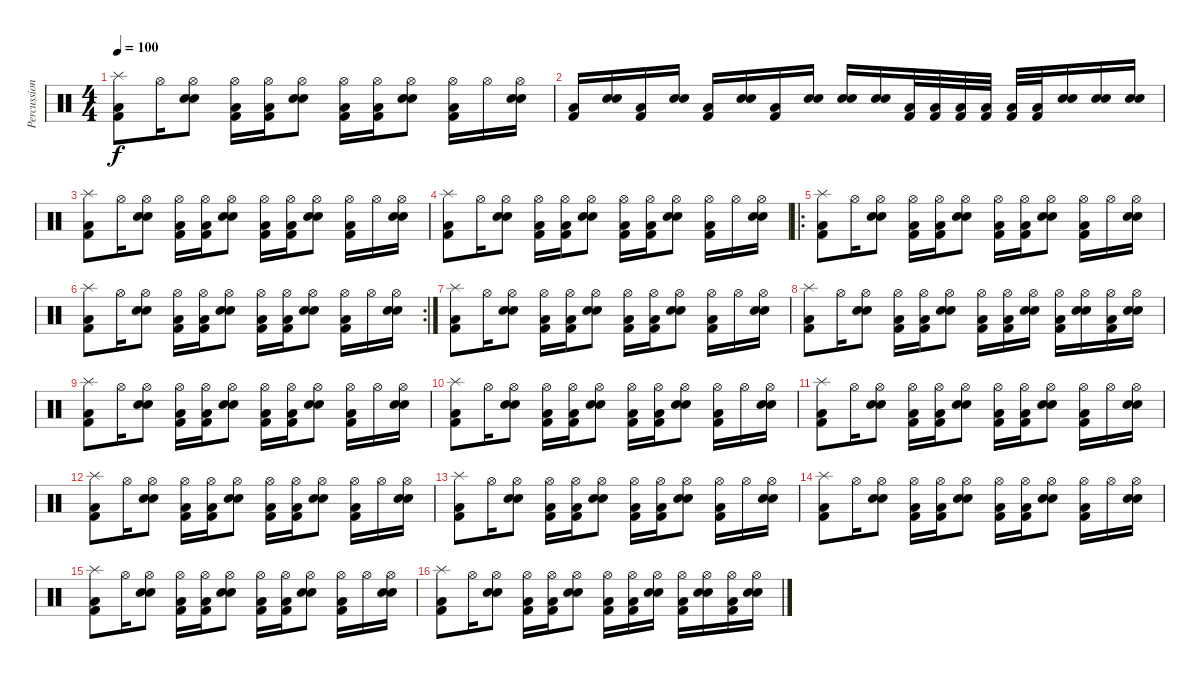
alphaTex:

\track ("Percussions" "Percussion") {instrument percussion}
\staff {score}
\articulation defaults
\ts (4 4)
\tempo 100
\clef neutral
\ks c
("Splash (hit)" "Kick (hit) 2" "Low Floor Tom (hit)").8{dy f} "Hi-Hat (open)".16 ("Hi-Hat (open)" "Snare (hit) 2" "Electric Snare (hit)").8 ("Hi-Hat (open)" "Kick (hit) 2" "Low Floor Tom (hit)").16 ("Hi-Hat (open)" "Kick (hit) 2" "Low Floor Tom (hit)").16 ("Hi-Hat (open)" "Snare (hit) 2" "Electric Snare (hit)").8 ("Hi-Hat (open)" "Kick (hit) 2" "Low Floor Tom (hit)").16 ("Hi-Hat (open)" "Kick (hit) 2" "Low Floor Tom (hit)").16 ("Hi-Hat (open)" "Snare (hit) 2" "Electric Snare (hit)").8 ("Hi-Hat (open)" "Kick (hit) 2" "Low Floor Tom (hit)").16 "Hi-Hat (open)".16 ("Hi-Hat (open)" "Snare (hit) 2" "Electric Snare (hit)").16 |
("Kick (hit) 2" "Low Floor Tom (hit)").16 ("Snare (hit) 2" "Electric Snare (hit)").16 ("Kick (hit) 2" "Low Floor Tom (hit)").16 ("Snare (hit) 2" "Electric Snare (hit)").16 ("Kick (hit) 2" "Low Floor Tom (hit)").16 ("Snare (hit) 2" "Electric Snare (hit)").16 ("Kick (hit) 2" "Low Floor Tom (hit)").16 ("Snare (hit) 2" "Electric Snare (hit)").16 ("Snare (hit) 2" "Electric Snare (hit)").16 ("Snare (hit) 2" "Electric Snare (hit)").16 ("Kick (hit) 2" "Low Floor Tom (hit)").32 ("Kick (hit) 2" "Low Floor Tom (hit)").32 ("Kick (hit) 2" "Low Floor Tom (hit)").32 ("Kick (hit) 2" "Low Floor Tom (hit)").32 ("Kick (hit) 2" "Low Floor Tom (hit)").32 ("Kick (hit) 2" "Low Floor Tom (hit)").32 ("Snare (hit) 2" "Electric Snare (hit)").16 ("Snare (hit) 2" "Electric Snare (hit)").16 ("Snare (hit) 2" "Electric Snare (hit)").16 |
("Splash (hit)" "Kick (hit) 2" "Low Floor Tom (hit)").8 "Hi-Hat (open)".16 ("Hi-Hat (open)" "Snare (hit) 2" "Electric Snare (hit)").8 ("Hi-Hat (open)" "Kick (hit) 2" "Low Floor Tom (hit)").16 ("Hi-Hat (open)" "Kick (hit) 2" "Low Floor Tom (hit)").16 ("Hi-Hat (open)" "Snare (hit) 2" "Electric Snare (hit)").8 ("Hi-Hat (open)" "Kick (hit) 2" "Low Floor Tom (hit)").16 ("Hi-Hat (open)" "Kick (hit) 2" "Low Floor Tom (hit)").16 ("Hi-Hat (open)" "Snare (hit) 2" "Electric Snare (hit)").8 ("Hi-Hat (open)" "Kick (hit) 2" "Low Floor Tom (hit)").16 "Hi-Hat (open)".16 ("Hi-Hat (open)" "Snare (hit) 2" "Electric Snare (hit)").16 |
("Splash (hit)" "Kick (hit) 2" "Low Floor Tom (hit)").8 "Hi-Hat (open)".16 ("Hi-Hat (open)" "Snare (hit) 2" "Electric Snare (hit)").8 ("Hi-Hat (open)" "Kick (hit) 2" "Low Floor Tom (hit)").16 ("Hi-Hat (open)" "Kick (hit) 2" "Low Floor Tom (hit)").16 ("Hi-Hat (open)" "Snare (hit) 2" "Electric Snare (hit)").8 ("Hi-Hat (open)" "Kick (hit) 2" "Low Floor Tom (hit)").16 ("Hi-Hat (open)" "Kick (hit) 2" "Low Floor Tom (hit)").16 ("Hi-Hat (open)" "Snare (hit) 2" "Electric Snare (hit)").8 ("Hi-Hat (open)" "Kick (hit) 2" "Low Floor Tom (hit)").16 "Hi-Hat (open)".16 ("Hi-Hat (open)" "Snare (hit) 2" "Electric Snare (hit)").16 |
\ro
("Splash (hit)" "Kick (hit) 2" "Low Floor Tom (hit)").8 "Hi-Hat (open)".16 ("Hi-Hat (open)" "Snare (hit) 2" "Electric Snare (hit)").8 ("Hi-Hat (open)" "Kick (hit) 2" "Low Floor Tom (hit)").16 ("Hi-Hat (open)" "Kick (hit) 2" "Low Floor Tom (hit)").16 ("Hi-Hat (open)" "Snare (hit) 2" "Electric Snare (hit)").8 ("Hi-Hat (open)" "Kick (hit) 2" "Low Floor Tom (hit)").16 ("Hi-Hat (open)" "Kick (hit) 2" "Low Floor Tom (hit)").16 ("Hi-Hat (open)" "Snare (hit) 2" "Electric Snare (hit)").8 ("Hi-Hat (open)" "Kick (hit) 2" "Low Floor Tom (hit)").16 "Hi-Hat (open)".16 ("Hi-Hat (open)" "Snare (hit) 2" "Electric Snare (hit)").16 |
\rc 2
("Splash (hit)" "Kick (hit) 2" "Low Floor Tom (hit)").8 "Hi-Hat (open)".16 ("Hi-Hat (open)" "Snare (hit) 2" "Electric Snare (hit)").8 ("Hi-Hat (open)" "Kick (hit) 2" "Low Floor Tom (hit)").16 ("Hi-Hat (open)" "Kick (hit) 2" "Low Floor Tom (hit)").16 ("Hi-Hat (open)" "Snare (hit) 2" "Electric Snare (hit)").8 ("Hi-Hat (open)" "Kick (hit) 2" "Low Floor Tom (hit)").16 ("Hi-Hat (open)" "Kick (hit) 2" "Low Floor Tom (hit)").16 ("Hi-Hat (open)" "Snare (hit) 2" "Electric Snare (hit)").8 ("Hi-Hat (open)" "Kick (hit) 2" "Low Floor Tom (hit)").16 "Hi-Hat (open)".16 ("Hi-Hat (open)" "Snare (hit) 2" "Electric Snare (hit)").16 |
("Splash (hit)" "Kick (hit) 2" "Low Floor Tom (hit)").8 "Hi-Hat (open)".16 ("Hi-Hat (open)" "Snare (hit) 2" "Electric Snare (hit)").8 ("Hi-Hat (open)" "Kick (hit) 2" "Low Floor Tom (hit)").16 ("Hi-Hat (open)" "Kick (hit) 2" "Low Floor Tom (hit)").16 ("Hi-Hat (open)" "Snare (hit) 2" "Electric Snare (hit)").8 ("Hi-Hat (open)" "Kick (hit) 2" "Low Floor Tom (hit)").16 ("Hi-Hat (open)" "Kick (hit) 2" "Low Floor Tom (hit)").16 ("Hi-Hat (open)" "Snare (hit) 2" "Electric Snare (hit)").8 ("Hi-Hat (open)" "Kick (hit) 2" "Low Floor Tom (hit)").16 "Hi-Hat (open)".16 ("Hi-Hat (open)" "Snare (hit) 2" "Electric Snare (hit)").16 |
("Splash (hit)" "Kick (hit) 2" "Low Floor Tom (hit)").8 "Hi-Hat (open)".16 ("Hi-Hat (open)" "Snare (hit) 2" "Electric Snare (hit)").8 ("Hi-Hat (open)" "Kick (hit) 2" "Low Floor Tom (hit)").16 ("Hi-Hat (open)" "Kick (hit) 2" "Low Floor Tom (hit)").16 ("Hi-Hat (open)" "Snare (hit) 2" "Electric Snare (hit)").8 ("Hi-Hat (open)" "Kick (hit) 2" "Low Floor Tom (hit)").16 ("Hi-Hat (open)" "Kick (hit) 2" "Low Floor Tom (hit)").16 ("Hi-Hat (open)" "Snare (hit) 2" "Electric Snare (hit)").16 ("Hi-Hat (open)" "Kick (hit) 2" "Low Floor Tom (hit)").16 ("Hi-Hat (open)" "Snare (hit) 2" "Electric Snare (hit)").16 ("Hi-Hat (open)" "Kick (hit) 2" "Low Floor Tom (hit)").16 ("Hi-Hat (open)" "Snare (hit) 2" "Electric Snare (hit)").16 |
("Splash (hit)" "Kick (hit) 2" "Low Floor Tom (hit)").8 "Hi-Hat (open)".16 ("Hi-Hat (open)" "Snare (hit) 2" "Electric Snare (hit)").8 ("Hi-Hat (open)" "Kick (hit) 2" "Low Floor Tom (hit)").16 ("Hi-Hat (open)" "Kick (hit) 2" "Low Floor Tom (hit)").16 ("Hi-Hat (open)" "Snare (hit) 2" "Electric Snare (hit)").8 ("Hi-Hat (open)" "Kick (hit) 2" "Low Floor Tom (hit)").16 ("Hi-Hat (open)" "Kick (hit) 2" "Low Floor Tom (hit)").16 ("Hi-Hat (open)" "Snare (hit) 2" "Electric Snare (hit)").8 ("Hi-Hat (open)" "Kick (hit) 2" "Low Floor Tom (hit)").16 "Hi-Hat (open)".16 ("Hi-Hat (open)" "Snare (hit) 2" "Electric Snare (hit)").16 |
("Splash (hit)" "Kick (hit) 2" "Low Floor Tom (hit)").8 "Hi-Hat (open)".16 ("Hi-Hat (open)" "Snare (hit) 2" "Electric Snare (hit)").8 ("Hi-Hat (open)" "Kick (hit) 2" "Low Floor Tom (hit)").16 ("Hi-Hat (open)" "Kick (hit) 2" "Low Floor Tom (hit)").16 ("Hi-Hat (open)" "Snare (hit) 2" "Electric Snare (hit)").8 ("Hi-Hat (open)" "Kick (hit) 2" "Low Floor Tom (hit)").16 ("Hi-Hat (open)" "Kick (hit) 2" "Low Floor Tom (hit)").16 ("Hi-Hat (open)" "Snare (hit) 2" "Electric Snare (hit)").8 ("Hi-Hat (open)" "Kick (hit) 2" "Low Floor Tom (hit)").16 "Hi-Hat (open)".16 ("Hi-Hat (open)" "Snare (hit) 2" "Electric Snare (hit)").16 |
("Splash (hit)" "Kick (hit) 2" "Low Floor Tom (hit)").8 "Hi-Hat (open)".16 ("Hi-Hat (open)" "Snare (hit) 2" "Electric Snare (hit)").8 ("Hi-Hat (open)" "Kick (hit) 2" "Low Floor Tom (hit)").16 ("Hi-Hat (open)" "Kick (hit) 2" "Low Floor Tom (hit)").16 ("Hi-Hat (open)" "Snare (hit) 2" "Electric Snare (hit)").8 ("Hi-Hat (open)" "Kick (hit) 2" "Low Floor Tom (hit)").16 ("Hi-Hat (open)" "Kick (hit) 2" "Low Floor Tom (hit)").16 ("Hi-Hat (open)" "Snare (hit) 2" "Electric Snare (hit)").8 ("Hi-Hat (open)" "Kick (hit) 2" "Low Floor Tom (hit)").16 "Hi-Hat (open)".16 ("Hi-Hat (open)" "Snare (hit) 2" "Electric Snare (hit)").16 |
("Splash (hit)" "Kick (hit) 2" "Low Floor Tom (hit)").8 "Hi-Hat (open)".16 ("Hi-Hat (open)" "Snare (hit) 2" "Electric Snare (hit)").8 ("Hi-Hat (open)" "Kick (hit) 2" "Low Floor Tom (hit)").16 ("Hi-Hat (open)" "Kick (hit) 2" "Low Floor Tom (hit)").16 ("Hi-Hat (open)" "Snare (hit) 2" "Electric Snare (hit)").8 ("Hi-Hat (open)" "Kick (hit) 2" "Low Floor Tom (hit)").16 ("Hi-Hat (open)" "Kick (hit) 2" "Low Floor Tom (hit)").16 ("Hi-Hat (open)" "Snare (hit) 2" "Electric Snare (hit)").8 ("Hi-Hat (open)" "Kick (hit) 2" "Low Floor Tom (hit)").16 "Hi-Hat (open)".16 ("Hi-Hat (open)" "Snare (hit) 2" "Electric Snare (hit)").16 |
("Splash (hit)" "Kick (hit) 2" "Low Floor Tom (hit)").8 "Hi-Hat (open)".16 ("Hi-Hat (open)" "Snare (hit) 2" "Electric Snare (hit)").8 ("Hi-Hat (open)" "Kick (hit) 2" "Low Floor Tom (hit)").16 ("Hi-Hat (open)" "Kick (hit) 2" "Low Floor Tom (hit)").16 ("Hi-Hat (open)" "Snare (hit) 2" "Electric Snare (hit)").8 ("Hi-Hat (open)" "Kick (hit) 2" "Low Floor Tom (hit)").16 ("Hi-Hat (open)" "Kick (hit) 2" "Low Floor Tom (hit)").16 ("Hi-Hat (open)" "Snare (hit) 2" "Electric Snare (hit)").8 ("Hi-Hat (open)" "Kick (hit) 2" "Low Floor Tom (hit)").16 "Hi-Hat (open)".16 ("Hi-Hat (open)" "Snare (hit) 2" "Electric Snare (hit)").16 |
("Splash (hit)" "Kick (hit) 2" "Low Floor Tom (hit)").8 "Hi-Hat (open)".16 ("Hi-Hat (open)" "Snare (hit) 2" "Electric Snare (hit)").8 ("Hi-Hat (open)" "Kick (hit) 2" "Low Floor Tom (hit)").16 ("Hi-Hat (open)" "Kick (hit) 2" "Low Floor Tom (hit)").16 ("Hi-Hat (open)" "Snare (hit) 2" "Electric Snare (hit)").8 ("Hi-Hat (open)" "Kick (hit) 2" "Low Floor Tom (hit)").16 ("Hi-Hat (open)" "Kick (hit) 2" "Low Floor Tom (hit)").16 ("Hi-Hat (open)" "Snare (hit) 2" "Electric Snare (hit)").8 ("Hi-Hat (open)" "Kick (hit) 2" "Low Floor Tom (hit)").16 "Hi-Hat (open)".16 ("Hi-Hat (open)" "Snare (hit) 2" "Electric Snare (hit)").16 |
("Splash (hit)" "Kick (hit) 2" "Low Floor Tom (hit)").8 "Hi-Hat (open)".16 ("Hi-Hat (open)" "Snare (hit) 2" "Electric Snare (hit)").8 ("Hi-Hat (open)" "Kick (hit) 2" "Low Floor Tom (hit)").16 ("Hi-Hat (open)" "Kick (hit) 2" "Low Floor Tom (hit)").16 ("Hi-Hat (open)" "Snare (hit) 2" "Electric Snare (hit)").8 ("Hi-Hat (open)" "Kick (hit) 2" "Low Floor Tom (hit)").16 ("Hi-Hat (open)" "Kick (hit) 2" "Low Floor Tom (hit)").16 ("Hi-Hat (open)" "Snare (hit) 2" "Electric Snare (hit)").8 ("Hi-Hat (open)" "Kick (hit) 2" "Low Floor Tom (hit)").16 "Hi-Hat (open)".16 ("Hi-Hat (open)" "Snare (hit) 2" "Electric Snare (hit)").16 |
("Splash (hit)" "Kick (hit) 2" "Low Floor Tom (hit)").8 "Hi-Hat (open)".16 ("Hi-Hat (open)" "Snare (hit) 2" "Electric Snare (hit)").8 ("Hi-Hat (open)" "Kick (hit) 2" "Low Floor Tom (hit)").16 ("Hi-Hat (open)" "Kick (hit) 2" "Low Floor Tom (hit)").16 ("Hi-Hat (open)" "Snare (hit) 2" "Electric Snare (hit)").8 ("Hi-Hat (open)" "Kick (hit) 2" "Low Floor Tom (hit)").16 ("Hi-Hat (open)" "Kick (hit) 2" "Low Floor Tom (hit)").16 ("Hi-Hat (open)" "Snare (hit) 2" "Electric Snare (hit)").16 ("Hi-Hat (open)" "Kick (hit) 2" "Low Floor Tom (hit)").16 ("Hi-Hat (open)" "Snare (hit) 2" "Electric Snare (hit)").16 ("Hi-Hat (open)" "Kick (hit) 2" "Low Floor Tom (hit)").16 ("Hi-Hat (open)" "Snare (hit) 2" "Electric Snare (hit)").16
